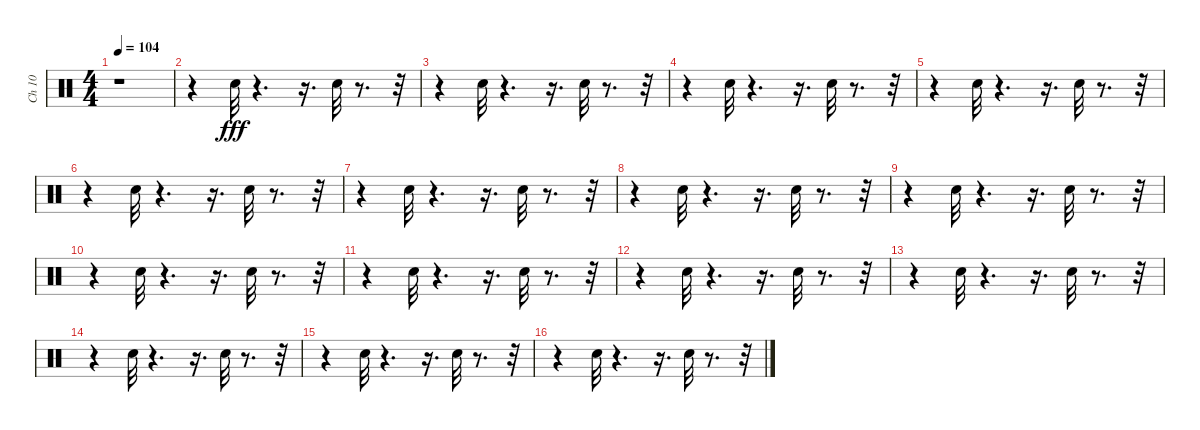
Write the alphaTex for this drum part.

\track ("Ch 10   " "Ch 10   ") {instrument percussion}
\staff {score}
\articulation defaults
\ts (4 4)
\tempo 104
\clef neutral
\ks c
r.1{dy fff} |
r.4 "Snare (hit) 2".32 r.4{d} r.16{d} "Snare (hit) 2".32 r.8{d} r.32 |
r.4 "Snare (hit) 2".32 r.4{d} r.16{d} "Snare (hit) 2".32 r.8{d} r.32 |
r.4 "Snare (hit) 2".32 r.4{d} r.16{d} "Snare (hit) 2".32 r.8{d} r.32 |
r.4 "Snare (hit) 2".32 r.4{d} r.16{d} "Snare (hit) 2".32 r.8{d} r.32 |
r.4 "Snare (hit) 2".32 r.4{d} r.16{d} "Snare (hit) 2".32 r.8{d} r.32 |
r.4 "Snare (hit) 2".32 r.4{d} r.16{d} "Snare (hit) 2".32 r.8{d} r.32 |
r.4 "Snare (hit) 2".32 r.4{d} r.16{d} "Snare (hit) 2".32 r.8{d} r.32 |
r.4 "Snare (hit) 2".32 r.4{d} r.16{d} "Snare (hit) 2".32 r.8{d} r.32 |
r.4 "Snare (hit) 2".32 r.4{d} r.16{d} "Snare (hit) 2".32 r.8{d} r.32 |
r.4 "Snare (hit) 2".32 r.4{d} r.16{d} "Snare (hit) 2".32 r.8{d} r.32 |
r.4 "Snare (hit) 2".32 r.4{d} r.16{d} "Snare (hit) 2".32 r.8{d} r.32 |
r.4 "Snare (hit) 2".32 r.4{d} r.16{d} "Snare (hit) 2".32 r.8{d} r.32 |
r.4 "Snare (hit) 2".32 r.4{d} r.16{d} "Snare (hit) 2".32 r.8{d} r.32 |
r.4 "Snare (hit) 2".32 r.4{d} r.16{d} "Snare (hit) 2".32 r.8{d} r.32 |
r.4 "Snare (hit) 2".32 r.4{d} r.16{d} "Snare (hit) 2".32 r.8{d} r.32
